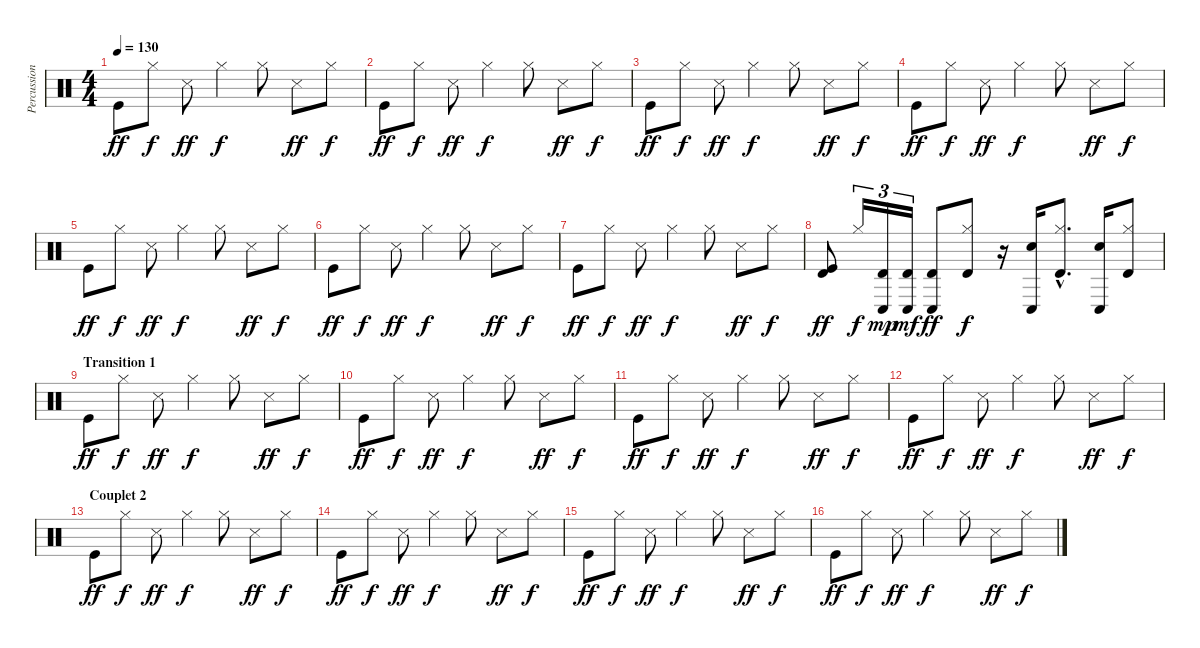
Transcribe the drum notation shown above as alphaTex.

\track ("Percussions" "Percussion") {instrument percussion}
\staff {score}
\articulation defaults
\ts (4 4)
\tempo 130
\clef neutral
\ks c "Kick (hit)".8{dy ff} "Hi-Hat (closed)".8{dy f} "Snare (side stick) 3".8{dy ff} "Hi-Hat (closed)".4{dy f} "Hi-Hat (closed)".8 "Snare (side stick) 3".8{dy ff} "Hi-Hat (closed)".8{dy f}
|
"Kick (hit)".8{dy ff} "Hi-Hat (closed)".8{dy f} "Snare (side stick) 3".8{dy ff} "Hi-Hat (closed)".4{dy f} "Hi-Hat (closed)".8 "Snare (side stick) 3".8{dy ff} "Hi-Hat (closed)".8{dy f} |
"Kick (hit)".8{dy ff} "Hi-Hat (closed)".8{dy f} "Snare (side stick) 3".8{dy ff} "Hi-Hat (closed)".4{dy f} "Hi-Hat (closed)".8 "Snare (side stick) 3".8{dy ff} "Hi-Hat (closed)".8{dy f} |
"Kick (hit)".8{dy ff} "Hi-Hat (closed)".8{dy f} "Snare (side stick) 3".8{dy ff} "Hi-Hat (closed)".4{dy f} "Hi-Hat (closed)".8 "Snare (side stick) 3".8{dy ff} "Hi-Hat (closed)".8{dy f} |
"Kick (hit)".8{dy ff} "Hi-Hat (closed)".8{dy f} "Snare (side stick) 3".8{dy ff} "Hi-Hat (closed)".4{dy f} "Hi-Hat (closed)".8 "Snare (side stick) 3".8{dy ff} "Hi-Hat (closed)".8{dy f} |
"Kick (hit)".8{dy ff} "Hi-Hat (closed)".8{dy f} "Snare (side stick) 3".8{dy ff} "Hi-Hat (closed)".4{dy f} "Hi-Hat (closed)".8 "Snare (side stick) 3".8{dy ff} "Hi-Hat (closed)".8{dy f} |
"Kick (hit)".8{dy ff} "Hi-Hat (closed)".8{dy f} "Snare (side stick) 3".8{dy ff} "Hi-Hat (closed)".4{dy f} "Hi-Hat (closed)".8 "Snare (side stick) 3".8{dy ff} "Hi-Hat (closed)".8{dy f} |
("Timbale high (hit)" "Kick (hit)").8{dy ff} "Hi-Hat (closed)".16{tu (3 2) dy f} ("Timbale high (hit)" "Conga low (hit)").16{tu (3 2) dy mp} ("Timbale high (hit)" "Conga low (hit)").16{tu (3 2) dy mf} ("Timbale high (hit)" "Conga low (hit)").8{dy ff} ("Hi-Hat (closed)" "Timbale high (hit)").8{dy f} r.16 ("Electric Snare (hit)" "Conga low (hit)").16 ("Hi-Hat (closed)"{hac} "Timbale high (hit)"{hac}).8{d} ("Electric Snare (hit)" "Conga low (hit)").16 ("Hi-Hat (closed)" "Timbale high (hit)").8 |
\section ("" "Transition 1")
"Kick (hit)".8{dy ff} "Hi-Hat (closed)".8{dy f} "Snare (side stick) 3".8{dy ff} "Hi-Hat (closed)".4{dy f} "Hi-Hat (closed)".8 "Snare (side stick) 3".8{dy ff} "Hi-Hat (closed)".8{dy f} |
"Kick (hit)".8{dy ff} "Hi-Hat (closed)".8{dy f} "Snare (side stick) 3".8{dy ff} "Hi-Hat (closed)".4{dy f} "Hi-Hat (closed)".8 "Snare (side stick) 3".8{dy ff} "Hi-Hat (closed)".8{dy f} |
"Kick (hit)".8{dy ff} "Hi-Hat (closed)".8{dy f} "Snare (side stick) 3".8{dy ff} "Hi-Hat (closed)".4{dy f} "Hi-Hat (closed)".8 "Snare (side stick) 3".8{dy ff} "Hi-Hat (closed)".8{dy f} |
"Kick (hit)".8{dy ff} "Hi-Hat (closed)".8{dy f} "Snare (side stick) 3".8{dy ff} "Hi-Hat (closed)".4{dy f} "Hi-Hat (closed)".8 "Snare (side stick) 3".8{dy ff} "Hi-Hat (closed)".8{dy f} |
\section ("" "Couplet 2")
"Kick (hit)".8{dy ff} "Hi-Hat (closed)".8{dy f} "Snare (side stick) 3".8{dy ff} "Hi-Hat (closed)".4{dy f} "Hi-Hat (closed)".8 "Snare (side stick) 3".8{dy ff} "Hi-Hat (closed)".8{dy f} |
"Kick (hit)".8{dy ff} "Hi-Hat (closed)".8{dy f} "Snare (side stick) 3".8{dy ff} "Hi-Hat (closed)".4{dy f} "Hi-Hat (closed)".8 "Snare (side stick) 3".8{dy ff} "Hi-Hat (closed)".8{dy f} |
"Kick (hit)".8{dy ff} "Hi-Hat (closed)".8{dy f} "Snare (side stick) 3".8{dy ff} "Hi-Hat (closed)".4{dy f} "Hi-Hat (closed)".8 "Snare (side stick) 3".8{dy ff} "Hi-Hat (closed)".8{dy f} |
"Kick (hit)".8{dy ff} "Hi-Hat (closed)".8{dy f} "Snare (side stick) 3".8{dy ff} "Hi-Hat (closed)".4{dy f} "Hi-Hat (closed)".8 "Snare (side stick) 3".8{dy ff} "Hi-Hat (closed)".8{dy f}
